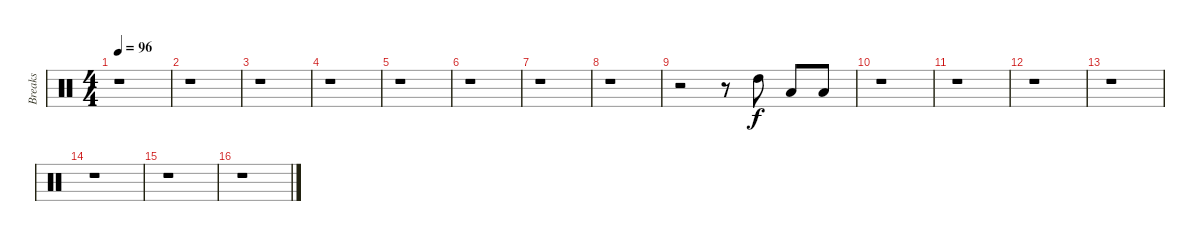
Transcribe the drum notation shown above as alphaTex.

\track ("Breaks" "Breaks") {instrument percussion}
\staff {score}
\articulation defaults
\ts (4 4)
\tempo 96
\clef neutral
\ks c
r.1{dy f} |
r.1 |
r.1 |
r.1 |
r.1 |
r.1 |
r.1 |
r.1 |
r.2 r.8 "High Tom (hit)".8 "Low Tom (hit)".8 "Low Floor Tom (hit)".8 |
r.1 |
r.1 |
r.1 |
r.1 |
r.1 |
r.1 |
r.1
